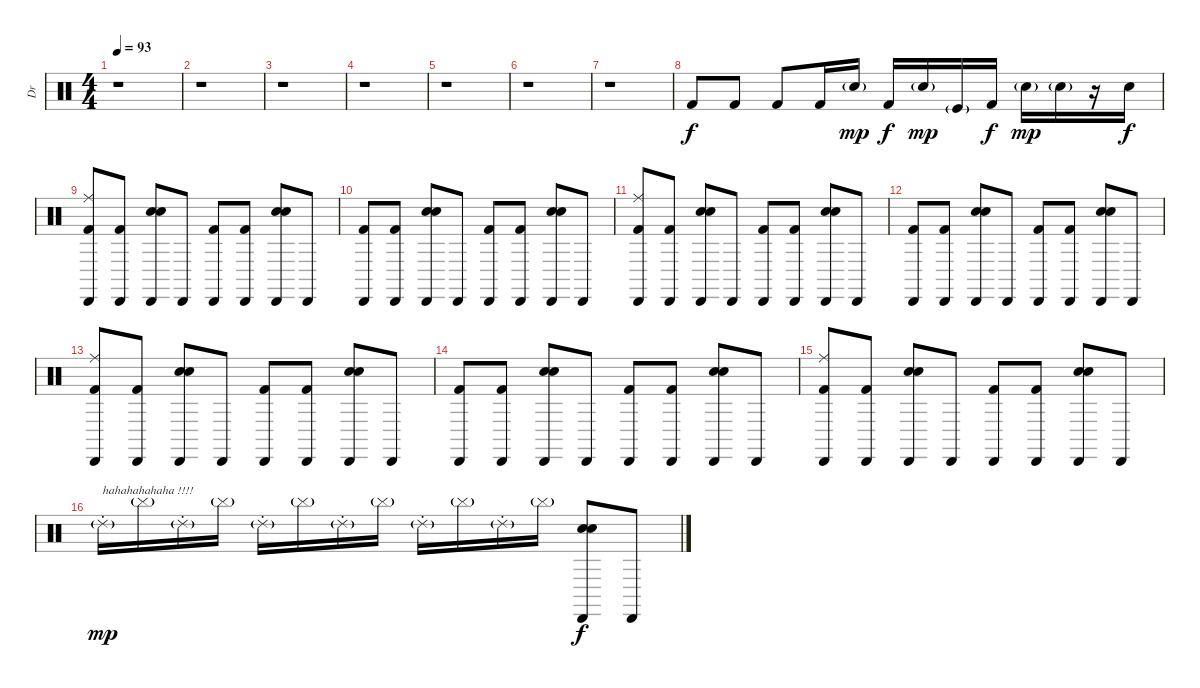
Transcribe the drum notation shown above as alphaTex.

\track ("Dr" "Dr") {instrument percussion}
\staff {score}
\articulation defaults
\ts (4 4)
\tempo 93
\clef neutral
\ks c
r.1{dy f volume 16} |
r.1 |
r.1 |
r.1 |
r.1 |
r.1 |
r.1 |
"Kick (hit) 2".8 "Kick (hit) 2".8 "Kick (hit) 2".8 "Kick (hit) 2".16 "Electric Snare (hit)"{g}.16{dy mp} "Kick (hit) 2".16{dy f} "Electric Snare (hit)"{g}.16{dy mp} "Kick (hit)"{g}.16 "Kick (hit) 2".16{dy f} "Electric Snare (hit)"{g}.16{dy mp} "Electric Snare (hit)"{g}.16 r.16 "Electric Snare (hit)".16{dy f} |
("Ride (middle)" "Cabasa (hit)" "Kick (hit) 2").8 ("Cabasa (hit)" "Kick (hit) 2").8 ("Cabasa (hit)" "Electric Snare (hit)" "Hand Clap (hit)").8 "Cabasa (hit)".8 ("Cabasa (hit)" "Kick (hit) 2").8 ("Cabasa (hit)" "Kick (hit) 2").8 ("Cabasa (hit)" "Electric Snare (hit)" "Hand Clap (hit)").8 "Cabasa (hit)".8 |
("Cabasa (hit)" "Kick (hit) 2").8 ("Cabasa (hit)" "Kick (hit) 2").8 ("Cabasa (hit)" "Electric Snare (hit)" "Hand Clap (hit)").8 "Cabasa (hit)".8 ("Cabasa (hit)" "Kick (hit) 2").8 ("Cabasa (hit)" "Kick (hit) 2").8 ("Cabasa (hit)" "Electric Snare (hit)" "Hand Clap (hit)").8 "Cabasa (hit)".8 |
("Ride (middle)" "Cabasa (hit)" "Kick (hit) 2").8 ("Cabasa (hit)" "Kick (hit) 2").8 ("Cabasa (hit)" "Electric Snare (hit)" "Hand Clap (hit)").8 "Cabasa (hit)".8 ("Cabasa (hit)" "Kick (hit) 2").8 ("Cabasa (hit)" "Kick (hit) 2").8 ("Cabasa (hit)" "Electric Snare (hit)" "Hand Clap (hit)").8 "Cabasa (hit)".8 |
("Cabasa (hit)" "Kick (hit) 2").8 ("Cabasa (hit)" "Kick (hit) 2").8 ("Cabasa (hit)" "Electric Snare (hit)" "Hand Clap (hit)").8 "Cabasa (hit)".8 ("Cabasa (hit)" "Kick (hit) 2").8 ("Cabasa (hit)" "Kick (hit) 2").8 ("Cabasa (hit)" "Electric Snare (hit)" "Hand Clap (hit)").8 "Cabasa (hit)".8 |
("Ride (middle)" "Cabasa (hit)" "Kick (hit) 2").8 ("Cabasa (hit)" "Kick (hit) 2").8 ("Cabasa (hit)" "Electric Snare (hit)" "Hand Clap (hit)").8 "Cabasa (hit)".8 ("Cabasa (hit)" "Kick (hit) 2").8 ("Cabasa (hit)" "Kick (hit) 2").8 ("Cabasa (hit)" "Electric Snare (hit)" "Hand Clap (hit)").8 "Cabasa (hit)".8 |
("Cabasa (hit)" "Kick (hit) 2").8 ("Cabasa (hit)" "Kick (hit) 2").8 ("Cabasa (hit)" "Electric Snare (hit)" "Hand Clap (hit)").8 "Cabasa (hit)".8 ("Cabasa (hit)" "Kick (hit) 2").8 ("Cabasa (hit)" "Kick (hit) 2").8 ("Cabasa (hit)" "Electric Snare (hit)" "Hand Clap (hit)").8 "Cabasa (hit)".8 |
("Ride (middle)" "Cabasa (hit)" "Kick (hit) 2").8 ("Cabasa (hit)" "Kick (hit) 2").8 ("Cabasa (hit)" "Electric Snare (hit)" "Hand Clap (hit)").8 "Cabasa (hit)".8 ("Cabasa (hit)" "Kick (hit) 2").8 ("Cabasa (hit)" "Kick (hit) 2").8 ("Cabasa (hit)" "Electric Snare (hit)" "Hand Clap (hit)").8 "Cabasa (hit)".8 |
"Ride (choke) 2"{g}.16{txt "hahahahahaha !!!!" dy mp volume 12} "Cymbal (hit)"{g}.16 "Ride (choke) 2"{g}.16 "Cymbal (hit)"{g}.16 "Ride (choke) 2"{g}.16 "Cymbal (hit)"{g}.16 "Ride (choke) 2"{g}.16 "Cymbal (hit)"{g}.16 "Ride (choke) 2"{g}.16 "Cymbal (hit)"{g}.16 "Ride (choke) 2"{g}.16 "Cymbal (hit)"{g}.16 ("Cabasa (hit)" "Electric Snare (hit)" "Hand Clap (hit)").8{dy f volume 16} "Cabasa (hit)".8
